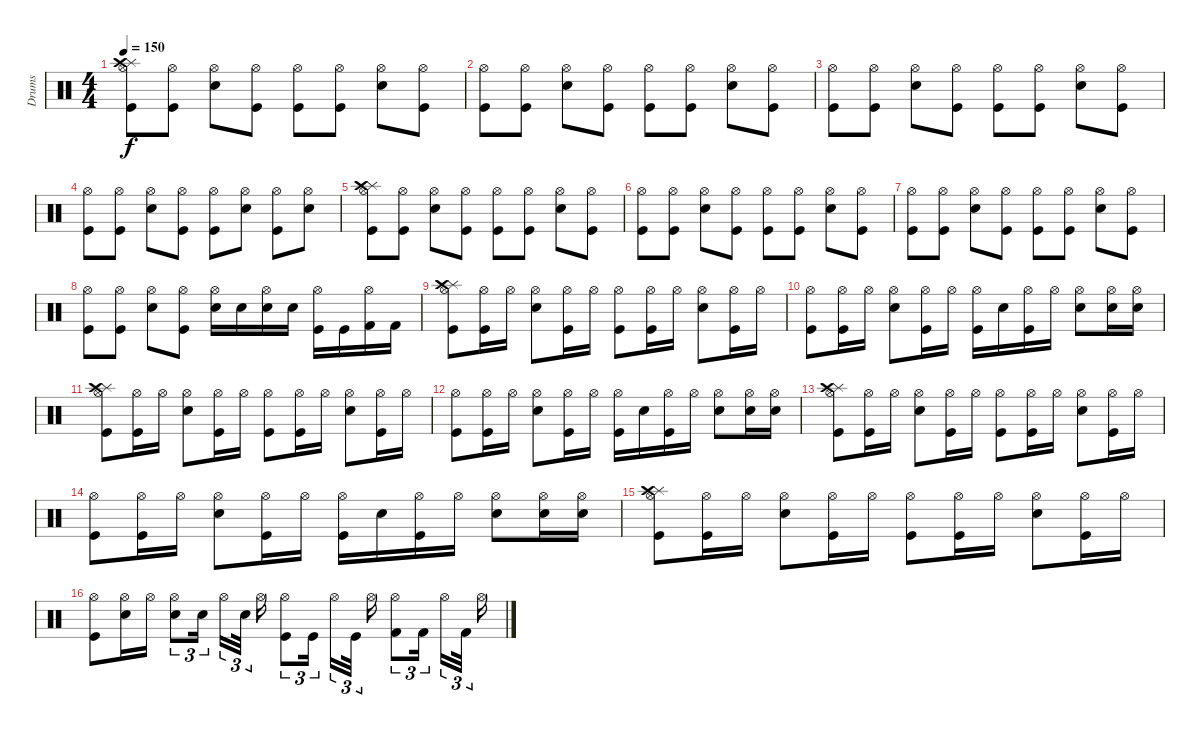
\track ("Drums" "Drums") {instrument percussion}
\staff {score}
\articulation defaults
\ts (4 4)
\tempo 150
\clef neutral
\ks c
("Splash (hit)" "Crash high (hit)" "Hi-Hat (open)" "Kick (hit)").8{dy f} ("Hi-Hat (open)" "Kick (hit)").8 ("Hi-Hat (open)" "Electric Snare (hit)").8 ("Hi-Hat (open)" "Kick (hit)").8 ("Hi-Hat (open)" "Kick (hit)").8 ("Hi-Hat (open)" "Kick (hit)").8 ("Hi-Hat (open)" "Electric Snare (hit)").8 ("Hi-Hat (open)" "Kick (hit)").8 |
("Hi-Hat (open)" "Kick (hit)").8 ("Hi-Hat (open)" "Kick (hit)").8 ("Hi-Hat (open)" "Electric Snare (hit)").8 ("Hi-Hat (open)" "Kick (hit)").8 ("Hi-Hat (open)" "Kick (hit)").8 ("Hi-Hat (open)" "Kick (hit)").8 ("Hi-Hat (open)" "Electric Snare (hit)").8 ("Hi-Hat (open)" "Kick (hit)").8 |
("Hi-Hat (open)" "Kick (hit)").8 ("Hi-Hat (open)" "Kick (hit)").8 ("Hi-Hat (open)" "Electric Snare (hit)").8 ("Hi-Hat (open)" "Kick (hit)").8 ("Hi-Hat (open)" "Kick (hit)").8 ("Hi-Hat (open)" "Kick (hit)").8 ("Hi-Hat (open)" "Electric Snare (hit)").8 ("Hi-Hat (open)" "Kick (hit)").8 |
("Hi-Hat (open)" "Kick (hit)").8 ("Hi-Hat (open)" "Kick (hit)").8 ("Hi-Hat (open)" "Electric Snare (hit)").8 ("Hi-Hat (open)" "Kick (hit)").8 ("Hi-Hat (open)" "Kick (hit)").8 ("Hi-Hat (open)" "Electric Snare (hit)").8 ("Hi-Hat (open)" "Kick (hit)").8 ("Hi-Hat (open)" "Electric Snare (hit)").8 |
("Splash (hit)" "Crash high (hit)" "Hi-Hat (open)" "Kick (hit)").8 ("Hi-Hat (open)" "Kick (hit)").8 ("Hi-Hat (open)" "Electric Snare (hit)").8 ("Hi-Hat (open)" "Kick (hit)").8 ("Hi-Hat (open)" "Kick (hit)").8 ("Hi-Hat (open)" "Kick (hit)").8 ("Hi-Hat (open)" "Electric Snare (hit)").8 ("Hi-Hat (open)" "Kick (hit)").8 |
("Hi-Hat (open)" "Kick (hit)").8 ("Hi-Hat (open)" "Kick (hit)").8 ("Hi-Hat (open)" "Electric Snare (hit)").8 ("Hi-Hat (open)" "Kick (hit)").8 ("Hi-Hat (open)" "Kick (hit)").8 ("Hi-Hat (open)" "Kick (hit)").8 ("Hi-Hat (open)" "Electric Snare (hit)").8 ("Hi-Hat (open)" "Kick (hit)").8 |
("Hi-Hat (open)" "Kick (hit)").8 ("Hi-Hat (open)" "Kick (hit)").8 ("Hi-Hat (open)" "Electric Snare (hit)").8 ("Hi-Hat (open)" "Kick (hit)").8 ("Hi-Hat (open)" "Kick (hit)").8 ("Hi-Hat (open)" "Kick (hit)").8 ("Hi-Hat (open)" "Electric Snare (hit)").8 ("Hi-Hat (open)" "Kick (hit)").8 |
("Hi-Hat (open)" "Kick (hit)").8 ("Hi-Hat (open)" "Kick (hit)").8 ("Hi-Hat (open)" "Electric Snare (hit)").8 ("Hi-Hat (open)" "Kick (hit)").8 ("Hi-Hat (open)" "Electric Snare (hit)").16 "Electric Snare (hit)".16 ("Hi-Hat (open)" "Snare (hit) 2").16 "Snare (hit) 2".16 ("Hi-Hat (open)" "Kick (hit)").16 "Kick (hit)".16 ("Hi-Hat (open)" "Kick (hit) 2").16 "Kick (hit) 2".16 |
("Splash (hit)" "Crash high (hit)" "Hi-Hat (open)" "Kick (hit)").8 ("Hi-Hat (open)" "Kick (hit)").16 "Hi-Hat (open)".16 ("Hi-Hat (open)" "Electric Snare (hit)").8 ("Hi-Hat (open)" "Kick (hit)").16 "Hi-Hat (open)".16 ("Hi-Hat (open)" "Kick (hit)").8 ("Hi-Hat (open)" "Kick (hit)").16 "Hi-Hat (open)".16 ("Hi-Hat (open)" "Electric Snare (hit)").8 ("Hi-Hat (open)" "Kick (hit)").16 "Hi-Hat (open)".16 |
("Hi-Hat (open)" "Kick (hit)").8 ("Hi-Hat (open)" "Kick (hit)").16 "Hi-Hat (open)".16 ("Hi-Hat (open)" "Electric Snare (hit)").8 ("Hi-Hat (open)" "Kick (hit)").16 "Hi-Hat (open)".16 ("Hi-Hat (open)" "Kick (hit)").16 "Electric Snare (hit)".16 ("Hi-Hat (open)" "Kick (hit)").16 "Hi-Hat (open)".16 ("Hi-Hat (open)" "Electric Snare (hit)").8 ("Hi-Hat (open)" "Electric Snare (hit)").16 ("Hi-Hat (open)" "Electric Snare (hit)").16 |
("Splash (hit)" "Crash high (hit)" "Hi-Hat (open)" "Kick (hit)").8 ("Hi-Hat (open)" "Kick (hit)").16 "Hi-Hat (open)".16 ("Hi-Hat (open)" "Electric Snare (hit)").8 ("Hi-Hat (open)" "Kick (hit)").16 "Hi-Hat (open)".16 ("Hi-Hat (open)" "Kick (hit)").8 ("Hi-Hat (open)" "Kick (hit)").16 "Hi-Hat (open)".16 ("Hi-Hat (open)" "Electric Snare (hit)").8 ("Hi-Hat (open)" "Kick (hit)").16 "Hi-Hat (open)".16 |
("Hi-Hat (open)" "Kick (hit)").8 ("Hi-Hat (open)" "Kick (hit)").16 "Hi-Hat (open)".16 ("Hi-Hat (open)" "Electric Snare (hit)").8 ("Hi-Hat (open)" "Kick (hit)").16 "Hi-Hat (open)".16 ("Hi-Hat (open)" "Kick (hit)").16 "Electric Snare (hit)".16 ("Hi-Hat (open)" "Kick (hit)").16 "Hi-Hat (open)".16 ("Hi-Hat (open)" "Electric Snare (hit)").8 ("Hi-Hat (open)" "Electric Snare (hit)").16 ("Hi-Hat (open)" "Electric Snare (hit)").16 |
("Splash (hit)" "Crash high (hit)" "Hi-Hat (open)" "Kick (hit)").8 ("Hi-Hat (open)" "Kick (hit)").16 "Hi-Hat (open)".16 ("Hi-Hat (open)" "Electric Snare (hit)").8 ("Hi-Hat (open)" "Kick (hit)").16 "Hi-Hat (open)".16 ("Hi-Hat (open)" "Kick (hit)").8 ("Hi-Hat (open)" "Kick (hit)").16 "Hi-Hat (open)".16 ("Hi-Hat (open)" "Electric Snare (hit)").8 ("Hi-Hat (open)" "Kick (hit)").16 "Hi-Hat (open)".16 |
("Hi-Hat (open)" "Kick (hit)").8 ("Hi-Hat (open)" "Kick (hit)").16 "Hi-Hat (open)".16 ("Hi-Hat (open)" "Electric Snare (hit)").8 ("Hi-Hat (open)" "Kick (hit)").16 "Hi-Hat (open)".16 ("Hi-Hat (open)" "Kick (hit)").16 "Electric Snare (hit)".16 ("Hi-Hat (open)" "Kick (hit)").16 "Hi-Hat (open)".16 ("Hi-Hat (open)" "Electric Snare (hit)").8 ("Hi-Hat (open)" "Electric Snare (hit)").16 ("Hi-Hat (open)" "Electric Snare (hit)").16 |
("Splash (hit)" "Crash high (hit)" "Hi-Hat (open)" "Kick (hit)").8 ("Hi-Hat (open)" "Kick (hit)").16 "Hi-Hat (open)".16 ("Hi-Hat (open)" "Electric Snare (hit)").8 ("Hi-Hat (open)" "Kick (hit)").16 "Hi-Hat (open)".16 ("Hi-Hat (open)" "Kick (hit)").8 ("Hi-Hat (open)" "Kick (hit)").16 "Hi-Hat (open)".16 ("Hi-Hat (open)" "Electric Snare (hit)").8 ("Hi-Hat (open)" "Kick (hit)").16 "Hi-Hat (open)".16 |
("Hi-Hat (open)" "Kick (hit)").8 ("Hi-Hat (open)" "Electric Snare (hit)").16 "Hi-Hat (open)".16 ("Hi-Hat (open)" "Snare (hit) 2").8{tu (3 2)} "Snare (hit) 2".16{tu (3 2)} "Hi-Hat (open)".16{tu (3 2)} "Snare (hit) 2".32{tu (3 2)} "Hi-Hat (open)".16 ("Hi-Hat (open)" "Kick (hit)").8{tu (3 2)} "Kick (hit)".16{tu (3 2)} "Hi-Hat (open)".16{tu (3 2)} "Kick (hit)".32{tu (3 2)} "Hi-Hat (open)".16 ("Hi-Hat (open)" "Kick (hit) 2").8{tu (3 2)} "Kick (hit) 2".16{tu (3 2)} "Hi-Hat (open)".16{tu (3 2)} "Kick (hit) 2".32{tu (3 2)} "Hi-Hat (open)".16
